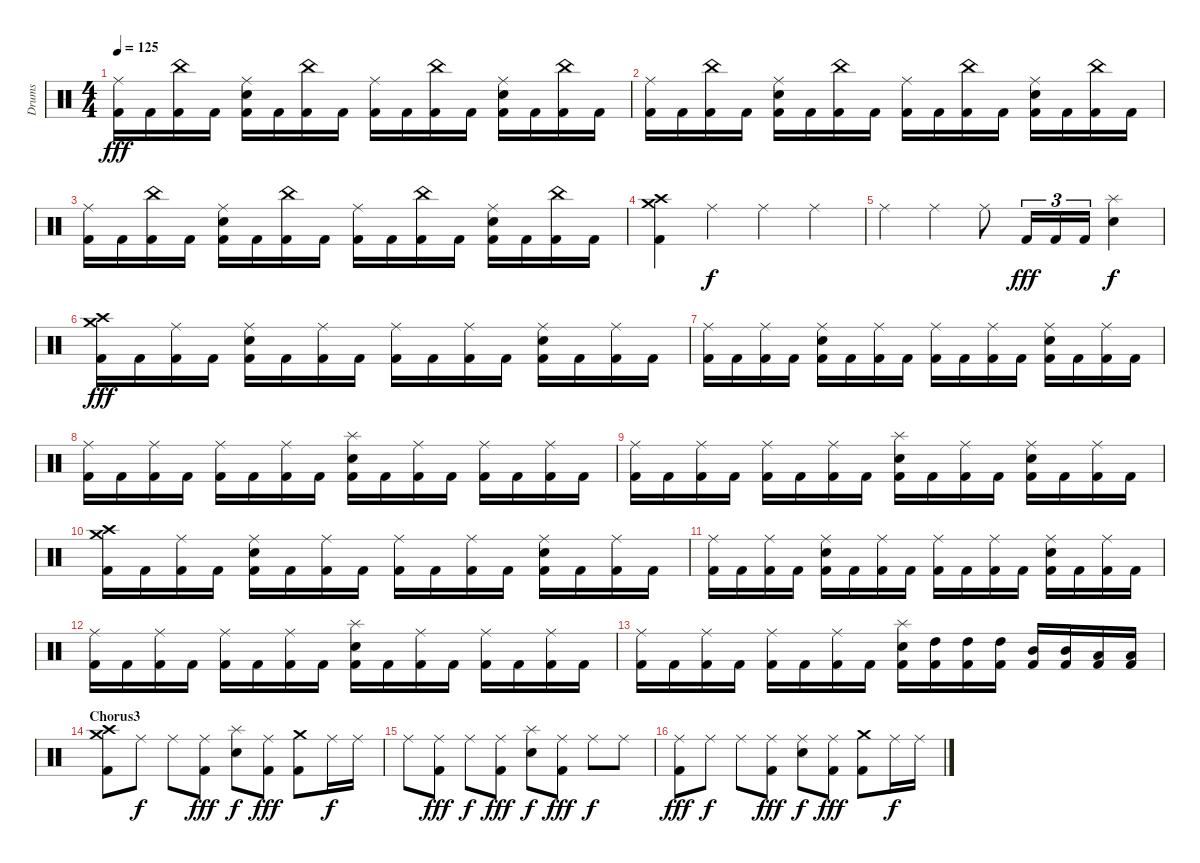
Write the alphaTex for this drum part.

\track ("Drums" "Drums") {instrument percussion}
\staff {score}
\articulation defaults
\ts (4 4)
\tempo 125
\clef neutral
\ks c
("Ride (middle)" "Kick (hit) 2").16{dy fff} "Kick (hit) 2".16 ("China (hit)" "Kick (hit) 2").16 "Kick (hit) 2".16 ("Ride (middle)" "Electric Snare (hit)" "Kick (hit) 2").16 "Kick (hit) 2".16 ("China (hit)" "Kick (hit) 2").16 "Kick (hit) 2".16 ("Ride (middle)" "Kick (hit) 2").16 "Kick (hit) 2".16 ("China (hit)" "Kick (hit) 2").16 "Kick (hit) 2".16 ("Ride (middle)" "Electric Snare (hit)" "Kick (hit) 2").16 "Kick (hit) 2".16 ("China (hit)" "Kick (hit) 2").16 "Kick (hit) 2".16 |
("Ride (middle)" "Kick (hit) 2").16 "Kick (hit) 2".16 ("China (hit)" "Kick (hit) 2").16 "Kick (hit) 2".16 ("Ride (middle)" "Electric Snare (hit)" "Kick (hit) 2").16 "Kick (hit) 2".16 ("China (hit)" "Kick (hit) 2").16 "Kick (hit) 2".16 ("Ride (middle)" "Kick (hit) 2").16 "Kick (hit) 2".16 ("China (hit)" "Kick (hit) 2").16 "Kick (hit) 2".16 ("Ride (middle)" "Electric Snare (hit)" "Kick (hit) 2").16 "Kick (hit) 2".16 ("China (hit)" "Kick (hit) 2").16 "Kick (hit) 2".16 |
("Ride (middle)" "Kick (hit) 2").16 "Kick (hit) 2".16 ("China (hit)" "Kick (hit) 2").16 "Kick (hit) 2".16 ("Ride (middle)" "Electric Snare (hit)" "Kick (hit) 2").16 "Kick (hit) 2".16 ("China (hit)" "Kick (hit) 2").16 "Kick (hit) 2".16 ("Ride (middle)" "Kick (hit) 2").16 "Kick (hit) 2".16 ("China (hit)" "Kick (hit) 2").16 "Kick (hit) 2".16 ("Ride (middle)" "Electric Snare (hit)" "Kick (hit) 2").16 "Kick (hit) 2".16 ("China (hit)" "Kick (hit) 2").16 "Kick (hit) 2".16 |
("Crash medium (hit)" "Crash high (hit)" "Kick (hit) 2").4 "Ride (middle)".4{dy f} "Ride (middle)".4 "Ride (middle)".4 |
"Ride (middle)".4 "Ride (middle)".4 "Ride (middle)".8 "Kick (hit) 2".16{tu (3 2) dy fff} "Kick (hit) 2".16{tu (3 2)} "Kick (hit) 2".16{tu (3 2)} ("Splash (hit)" "Electric Snare (hit)").4{dy f} |
("Crash medium (hit)" "Crash high (hit)" "Kick (hit) 2").16{dy fff} "Kick (hit) 2".16 ("Ride (middle)" "Kick (hit) 2").16 "Kick (hit) 2".16 ("Ride (middle)" "Electric Snare (hit)" "Kick (hit) 2").16 "Kick (hit) 2".16 ("Ride (middle)" "Kick (hit) 2").16 "Kick (hit) 2".16 ("Ride (middle)" "Kick (hit) 2").16 "Kick (hit) 2".16 ("Ride (middle)" "Kick (hit) 2").16 "Kick (hit) 2".16 ("Ride (middle)" "Electric Snare (hit)" "Kick (hit) 2").16 "Kick (hit) 2".16 ("Ride (middle)" "Kick (hit) 2").16 "Kick (hit) 2".16 |
("Ride (middle)" "Kick (hit) 2").16 "Kick (hit) 2".16 ("Ride (middle)" "Kick (hit) 2").16 "Kick (hit) 2".16 ("Ride (middle)" "Electric Snare (hit)" "Kick (hit) 2").16 "Kick (hit) 2".16 ("Ride (middle)" "Kick (hit) 2").16 "Kick (hit) 2".16 ("Ride (middle)" "Kick (hit) 2").16 "Kick (hit) 2".16 ("Ride (middle)" "Kick (hit) 2").16 "Kick (hit) 2".16 ("Ride (middle)" "Electric Snare (hit)" "Kick (hit) 2").16 "Kick (hit) 2".16 ("Ride (middle)" "Kick (hit) 2").16 "Kick (hit) 2".16 |
("Ride (middle)" "Kick (hit) 2").16 "Kick (hit) 2".16 ("Ride (middle)" "Kick (hit) 2").16 "Kick (hit) 2".16 ("Ride (middle)" "Kick (hit) 2").16 "Kick (hit) 2".16 ("Ride (middle)" "Kick (hit) 2").16 "Kick (hit) 2".16 ("Splash (hit)" "Electric Snare (hit)" "Kick (hit) 2").16 "Kick (hit) 2".16 ("Ride (middle)" "Kick (hit) 2").16 "Kick (hit) 2".16 ("Ride (middle)" "Kick (hit) 2").16 "Kick (hit) 2".16 ("Ride (middle)" "Kick (hit) 2").16 "Kick (hit) 2".16 |
("Ride (middle)" "Kick (hit) 2").16 "Kick (hit) 2".16 ("Ride (middle)" "Kick (hit) 2").16 "Kick (hit) 2".16 ("Ride (middle)" "Kick (hit) 2").16 "Kick (hit) 2".16 ("Ride (middle)" "Kick (hit) 2").16 "Kick (hit) 2".16 ("Splash (hit)" "Electric Snare (hit)" "Kick (hit) 2").16 "Kick (hit) 2".16 ("Ride (middle)" "Kick (hit) 2").16 "Kick (hit) 2".16 ("Ride (middle)" "Electric Snare (hit)" "Kick (hit) 2").16 "Kick (hit) 2".16 ("Ride (middle)" "Kick (hit) 2").16 "Kick (hit) 2".16 |
("Crash medium (hit)" "Crash high (hit)" "Kick (hit) 2").16 "Kick (hit) 2".16 ("Ride (middle)" "Kick (hit) 2").16 "Kick (hit) 2".16 ("Ride (middle)" "Electric Snare (hit)" "Kick (hit) 2").16 "Kick (hit) 2".16 ("Ride (middle)" "Kick (hit) 2").16 "Kick (hit) 2".16 ("Ride (middle)" "Kick (hit) 2").16 "Kick (hit) 2".16 ("Ride (middle)" "Kick (hit) 2").16 "Kick (hit) 2".16 ("Ride (middle)" "Electric Snare (hit)" "Kick (hit) 2").16 "Kick (hit) 2".16 ("Ride (middle)" "Kick (hit) 2").16 "Kick (hit) 2".16 |
("Ride (middle)" "Kick (hit) 2").16 "Kick (hit) 2".16 ("Ride (middle)" "Kick (hit) 2").16 "Kick (hit) 2".16 ("Ride (middle)" "Electric Snare (hit)" "Kick (hit) 2").16 "Kick (hit) 2".16 ("Ride (middle)" "Kick (hit) 2").16 "Kick (hit) 2".16 ("Ride (middle)" "Kick (hit) 2").16 "Kick (hit) 2".16 ("Ride (middle)" "Kick (hit) 2").16 "Kick (hit) 2".16 ("Ride (middle)" "Electric Snare (hit)" "Kick (hit) 2").16 "Kick (hit) 2".16 ("Ride (middle)" "Kick (hit) 2").16 "Kick (hit) 2".16 |
("Ride (middle)" "Kick (hit) 2").16 "Kick (hit) 2".16 ("Ride (middle)" "Kick (hit) 2").16 "Kick (hit) 2".16 ("Ride (middle)" "Kick (hit) 2").16 "Kick (hit) 2".16 ("Ride (middle)" "Kick (hit) 2").16 "Kick (hit) 2".16 ("Splash (hit)" "Electric Snare (hit)" "Kick (hit) 2").16 "Kick (hit) 2".16 ("Ride (middle)" "Kick (hit) 2").16 "Kick (hit) 2".16 ("Ride (middle)" "Kick (hit) 2").16 "Kick (hit) 2".16 ("Ride (middle)" "Kick (hit) 2").16 "Kick (hit) 2".16 |
("Ride (middle)" "Kick (hit) 2").16 "Kick (hit) 2".16 ("Ride (middle)" "Kick (hit) 2").16 "Kick (hit) 2".16 ("Ride (middle)" "Kick (hit) 2").16 "Kick (hit) 2".16 ("Ride (middle)" "Kick (hit) 2").16 "Kick (hit) 2".16 ("Splash (hit)" "Electric Snare (hit)" "Kick (hit) 2").16 ("High Tom (hit)" "Kick (hit) 2").16 ("High Tom (hit)" "Kick (hit) 2").16 ("High Tom (hit)" "Kick (hit) 2").16 ("Mid Tom (hit)" "Kick (hit) 2").16 ("Mid Tom (hit)" "Kick (hit) 2").16 ("Low Tom (hit)" "Kick (hit) 2").16 ("Low Tom (hit)" "Kick (hit) 2").16 |
\section ("" "Chorus3")
("Crash high (hit)" "Crash medium (hit)" "Kick (hit) 2").8 "Ride (middle)".8{dy f} "Ride (middle)".8 ("Ride (middle)" "Kick (hit) 2").8{dy fff} ("Splash (hit)" "Electric Snare (hit)").8{dy f} ("Ride (middle)" "Kick (hit) 2").8{dy fff} ("Crash medium (hit)" "Kick (hit) 2").8 "Ride (middle)".16{dy f} "Ride (middle)".16 |
"Ride (middle)".8 ("Ride (middle)" "Kick (hit) 2").8{dy fff} "Ride (middle)".8{dy f} ("Ride (middle)" "Kick (hit) 2").8{dy fff} ("Splash (hit)" "Electric Snare (hit)").8{dy f} ("Ride (middle)" "Kick (hit) 2").8{dy fff} "Ride (middle)".8{dy f} "Ride (middle)".8 |
("Ride (middle)" "Kick (hit) 2").8{dy fff} "Ride (middle)".8{dy f} "Ride (middle)".8 ("Ride (middle)" "Kick (hit) 2").8{dy fff} ("Ride (middle)" "Electric Snare (hit)").8{dy f} ("Ride (middle)" "Kick (hit) 2").8{dy fff} ("Crash medium (hit)" "Kick (hit) 2").8 "Ride (middle)".16{dy f} "Ride (middle)".16
